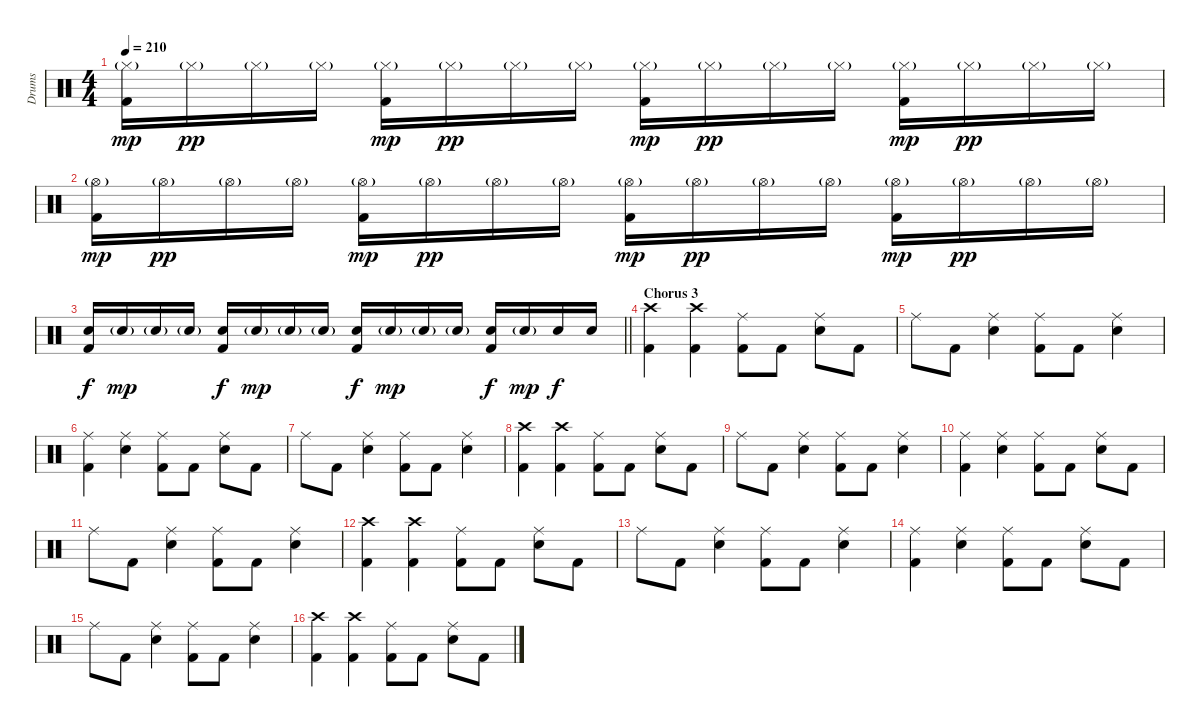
\track ("Drums" "Drums") {instrument percussion}
\staff {score}
\articulation defaults
\ts (4 4)
\tempo 210
\clef neutral
\ks c
("Hi-Hat (closed)"{g} "Kick (hit) 2").16{dy mp} "Hi-Hat (closed)"{g}.16{dy pp} "Hi-Hat (closed)"{g}.16 "Hi-Hat (closed)"{g}.16 ("Hi-Hat (closed)"{g} "Kick (hit) 2").16{dy mp} "Hi-Hat (closed)"{g}.16{dy pp} "Hi-Hat (closed)"{g}.16 "Hi-Hat (closed)"{g}.16 ("Hi-Hat (closed)"{g} "Kick (hit) 2").16{dy mp} "Hi-Hat (closed)"{g}.16{dy pp} "Hi-Hat (closed)"{g}.16 "Hi-Hat (closed)"{g}.16 ("Hi-Hat (closed)"{g} "Kick (hit) 2").16{dy mp} "Hi-Hat (closed)"{g}.16{dy pp} "Hi-Hat (closed)"{g}.16 "Hi-Hat (closed)"{g}.16 |
("Hi-Hat (open)"{g} "Kick (hit) 2").16{dy mp} "Hi-Hat (open)"{g}.16{dy pp} "Hi-Hat (open)"{g}.16 "Hi-Hat (open)"{g}.16 ("Hi-Hat (open)"{g} "Kick (hit) 2").16{dy mp} "Hi-Hat (open)"{g}.16{dy pp} "Hi-Hat (open)"{g}.16 "Hi-Hat (open)"{g}.16 ("Hi-Hat (open)"{g} "Kick (hit) 2").16{dy mp} "Hi-Hat (open)"{g}.16{dy pp} "Hi-Hat (open)"{g}.16 "Hi-Hat (open)"{g}.16 ("Hi-Hat (open)"{g} "Kick (hit) 2").16{dy mp} "Hi-Hat (open)"{g}.16{dy pp} "Hi-Hat (open)"{g}.16 "Hi-Hat (open)"{g}.16 |
\barLineRight lightlight
("Snare (hit) 2" "Kick (hit) 2").16{dy f} "Snare (hit) 2"{g}.16{dy mp} "Snare (hit) 2"{g}.16 "Snare (hit) 2"{g}.16 ("Snare (hit) 2" "Kick (hit) 2").16{dy f} "Snare (hit) 2"{g}.16{dy mp} "Snare (hit) 2"{g}.16 "Snare (hit) 2"{g}.16 ("Snare (hit) 2" "Kick (hit) 2").16{dy f} "Snare (hit) 2"{g}.16{dy mp} "Snare (hit) 2"{g}.16 "Snare (hit) 2"{g}.16 ("Snare (hit) 2" "Kick (hit) 2").16{dy f} "Snare (hit) 2"{g}.16{dy mp} "Snare (hit) 2".16{dy f} "Snare (hit) 2".16 |
\section ("" "Chorus 3")
("Crash high (hit)" "Kick (hit) 2").4 ("Crash high (hit)" "Kick (hit) 2").4 ("Ride (middle)" "Kick (hit) 2").8 "Kick (hit) 2".8 ("Ride (middle)" "Snare (hit) 2").8 "Kick (hit) 2".8 |
"Ride (middle)".8 "Kick (hit) 2".8 ("Ride (middle)" "Snare (hit) 2").4 ("Ride (middle)" "Kick (hit) 2").8 "Kick (hit) 2".8 ("Ride (middle)" "Snare (hit) 2").4 |
("Ride (middle)" "Kick (hit) 2").4 ("Ride (middle)" "Snare (hit) 2").4 ("Ride (middle)" "Kick (hit) 2").8 "Kick (hit) 2".8 ("Ride (middle)" "Snare (hit) 2").8 "Kick (hit) 2".8 |
"Ride (middle)".8 "Kick (hit) 2".8 ("Ride (middle)" "Snare (hit) 2").4 ("Ride (middle)" "Kick (hit) 2").8 "Kick (hit) 2".8 ("Ride (middle)" "Snare (hit) 2").4 |
("Crash high (hit)" "Kick (hit) 2").4 ("Crash high (hit)" "Kick (hit) 2").4 ("Ride (middle)" "Kick (hit) 2").8 "Kick (hit) 2".8 ("Ride (middle)" "Snare (hit) 2").8 "Kick (hit) 2".8 |
"Ride (middle)".8 "Kick (hit) 2".8 ("Ride (middle)" "Snare (hit) 2").4 ("Ride (middle)" "Kick (hit) 2").8 "Kick (hit) 2".8 ("Ride (middle)" "Snare (hit) 2").4 |
("Ride (middle)" "Kick (hit) 2").4 ("Ride (middle)" "Snare (hit) 2").4 ("Ride (middle)" "Kick (hit) 2").8 "Kick (hit) 2".8 ("Ride (middle)" "Snare (hit) 2").8 "Kick (hit) 2".8 |
"Ride (middle)".8 "Kick (hit) 2".8 ("Ride (middle)" "Snare (hit) 2").4 ("Ride (middle)" "Kick (hit) 2").8 "Kick (hit) 2".8 ("Ride (middle)" "Snare (hit) 2").4 |
("Crash high (hit)" "Kick (hit) 2").4 ("Crash high (hit)" "Kick (hit) 2").4 ("Ride (middle)" "Kick (hit) 2").8 "Kick (hit) 2".8 ("Ride (middle)" "Snare (hit) 2").8 "Kick (hit) 2".8 |
"Ride (middle)".8 "Kick (hit) 2".8 ("Ride (middle)" "Snare (hit) 2").4 ("Ride (middle)" "Kick (hit) 2").8 "Kick (hit) 2".8 ("Ride (middle)" "Snare (hit) 2").4 |
("Ride (middle)" "Kick (hit) 2").4 ("Ride (middle)" "Snare (hit) 2").4 ("Ride (middle)" "Kick (hit) 2").8 "Kick (hit) 2".8 ("Ride (middle)" "Snare (hit) 2").8 "Kick (hit) 2".8 |
"Ride (middle)".8 "Kick (hit) 2".8 ("Ride (middle)" "Snare (hit) 2").4 ("Ride (middle)" "Kick (hit) 2").8 "Kick (hit) 2".8 ("Ride (middle)" "Snare (hit) 2").4 |
("Crash high (hit)" "Kick (hit) 2").4 ("Crash high (hit)" "Kick (hit) 2").4 ("Ride (middle)" "Kick (hit) 2").8 "Kick (hit) 2".8 ("Ride (middle)" "Snare (hit) 2").8 "Kick (hit) 2".8
